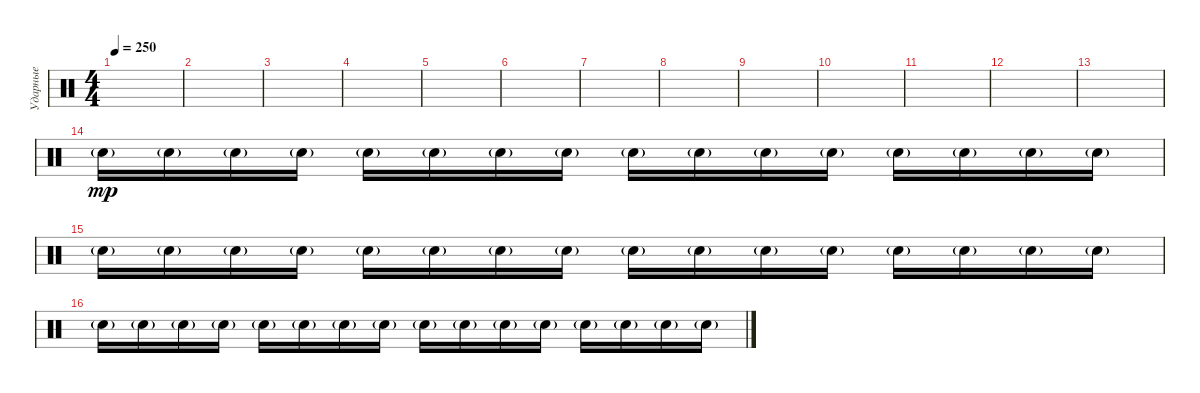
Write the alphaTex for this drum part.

\track ("Ударные" "Ударные") {instrument percussion}
\staff {score}
\articulation defaults
\ts (4 4)
\tempo 250
\clef neutral
\ks c
|
|
|
|
|
|
|
|
|
|
|
|
|
"Electric Snare (hit)"{g}.16{dy mp} "Electric Snare (hit)"{g}.16 "Electric Snare (hit)"{g}.16 "Electric Snare (hit)"{g}.16 "Electric Snare (hit)"{g}.16 "Electric Snare (hit)"{g}.16 "Electric Snare (hit)"{g}.16 "Electric Snare (hit)"{g}.16 "Electric Snare (hit)"{g}.16 "Electric Snare (hit)"{g}.16 "Electric Snare (hit)"{g}.16 "Electric Snare (hit)"{g}.16 "Electric Snare (hit)"{g}.16 "Electric Snare (hit)"{g}.16 "Electric Snare (hit)"{g}.16 "Electric Snare (hit)"{g}.16 |
"Electric Snare (hit)"{g}.16 "Electric Snare (hit)"{g}.16 "Electric Snare (hit)"{g}.16 "Electric Snare (hit)"{g}.16 "Electric Snare (hit)"{g}.16 "Electric Snare (hit)"{g}.16 "Electric Snare (hit)"{g}.16 "Electric Snare (hit)"{g}.16 "Electric Snare (hit)"{g}.16 "Electric Snare (hit)"{g}.16 "Electric Snare (hit)"{g}.16 "Electric Snare (hit)"{g}.16 "Electric Snare (hit)"{g}.16 "Electric Snare (hit)"{g}.16 "Electric Snare (hit)"{g}.16 "Electric Snare (hit)"{g}.16 |
"Electric Snare (hit)"{g}.16 "Electric Snare (hit)"{g}.16 "Electric Snare (hit)"{g}.16 "Electric Snare (hit)"{g}.16 "Electric Snare (hit)"{g}.16 "Electric Snare (hit)"{g}.16 "Electric Snare (hit)"{g}.16 "Electric Snare (hit)"{g}.16 "Electric Snare (hit)"{g}.16 "Electric Snare (hit)"{g}.16 "Electric Snare (hit)"{g}.16 "Electric Snare (hit)"{g}.16 "Electric Snare (hit)"{g}.16 "Electric Snare (hit)"{g}.16 "Electric Snare (hit)"{g}.16 "Electric Snare (hit)"{g}.16
